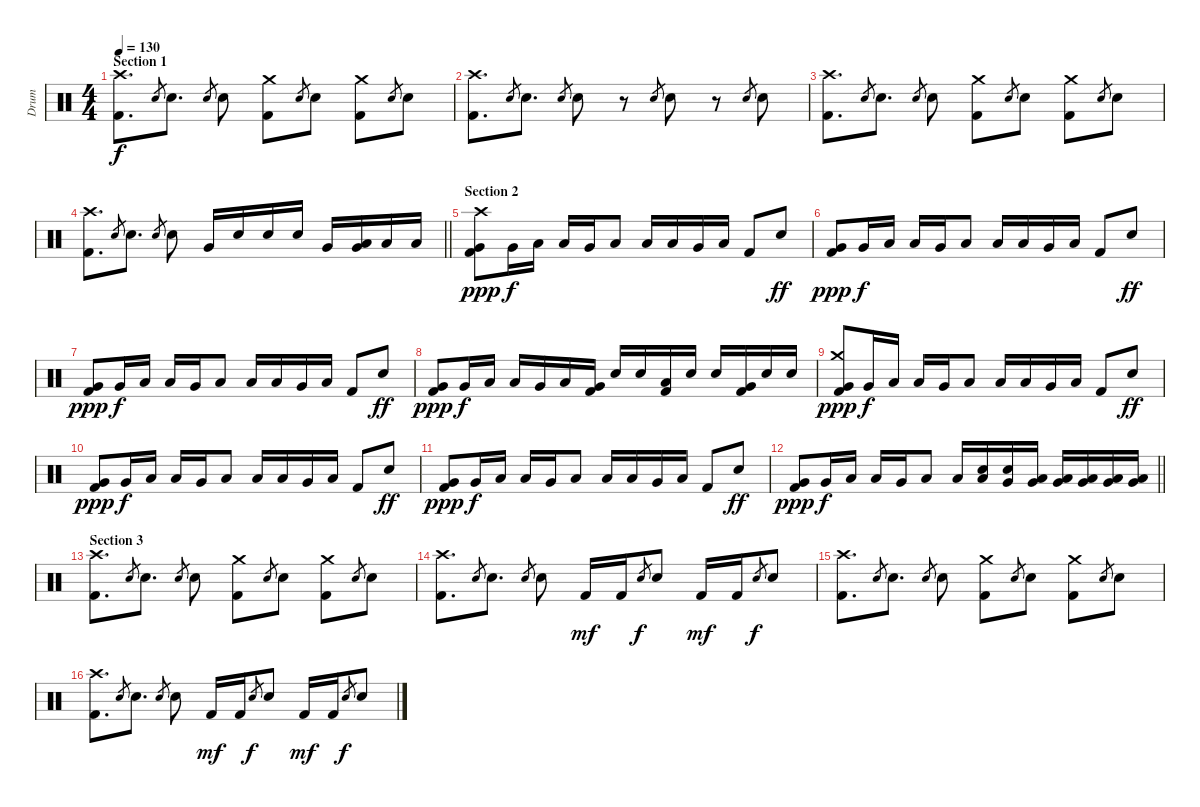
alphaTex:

\track ("Drum" "Drum") {instrument percussion}
\staff {score}
\articulation defaults
\ts (4 4)
\section ("" "Section 1")
\tempo 130
\clef neutral
\ks c
("Crash high (hit)" "Kick (hit) 2").8{d dy f} "Electric Snare (hit)".8{gr} "Electric Snare (hit)".8{d} "Electric Snare (hit)".8{gr} "Electric Snare (hit)".8 ("Kick (hit) 2" "Crash medium (hit)").8 "Electric Snare (hit)".8{gr} "Electric Snare (hit)".8 ("Kick (hit) 2" "Crash medium (hit)").8 "Electric Snare (hit)".8{gr} "Electric Snare (hit)".8 |
("Crash high (hit)" "Kick (hit) 2").8{d} "Electric Snare (hit)".8{gr} "Electric Snare (hit)".8{d} "Electric Snare (hit)".8{gr} "Electric Snare (hit)".8 r.8 "Electric Snare (hit)".8{gr} "Electric Snare (hit)".8 r.8 "Electric Snare (hit)".8{gr} "Electric Snare (hit)".8 |
("Crash high (hit)" "Kick (hit) 2").8{d} "Electric Snare (hit)".8{gr} "Electric Snare (hit)".8{d} "Electric Snare (hit)".8{gr} "Electric Snare (hit)".8 ("Kick (hit) 2" "Crash medium (hit)").8 "Electric Snare (hit)".8{gr} "Electric Snare (hit)".8 ("Kick (hit) 2" "Crash medium (hit)").8 "Electric Snare (hit)".8{gr} "Electric Snare (hit)".8 |
\barLineRight lightlight
("Crash high (hit)" "Kick (hit) 2").8{d} "Electric Snare (hit)".8{gr} "Electric Snare (hit)".8{d} "Electric Snare (hit)".8{gr} "Electric Snare (hit)".8 "Very Low Tom (hit)".16 "Electric Snare (hit)".16 "Electric Snare (hit)".16 "Electric Snare (hit)".16 "Very Low Tom (hit)".16 ("Low Floor Tom (hit)" "Very Low Tom (hit)").16 "Low Floor Tom (hit)".16 "Low Floor Tom (hit)".16 |
\section ("" "Section 2")
("Crash high (hit)" "Very Low Tom (hit)" "Kick (hit) 2").8{dy ppp} "Very Low Tom (hit)".16{dy f} "Low Tom (hit)".16 "Low Tom (hit)".16 "Very Low Tom (hit)".16 "Low Tom (hit)".8 "Low Floor Tom (hit)".16 "Low Tom (hit)".16 "Very Low Tom (hit)".16 "Low Floor Tom (hit)".16 "Kick (hit) 2".8 "Electric Snare (hit)".8{dy ff} |
("Very Low Tom (hit)" "Kick (hit) 2").8{dy ppp} "Very Low Tom (hit)".16{dy f} "Low Tom (hit)".16 "Low Tom (hit)".16 "Very Low Tom (hit)".16 "Low Tom (hit)".8 "Low Floor Tom (hit)".16 "Low Tom (hit)".16 "Very Low Tom (hit)".16 "Low Floor Tom (hit)".16 "Kick (hit) 2".8 "Electric Snare (hit)".8{dy ff} |
("Very Low Tom (hit)" "Kick (hit) 2").8{dy ppp} "Very Low Tom (hit)".16{dy f} "Low Tom (hit)".16 "Low Tom (hit)".16 "Very Low Tom (hit)".16 "Low Tom (hit)".8 "Low Floor Tom (hit)".16 "Low Tom (hit)".16 "Very Low Tom (hit)".16 "Low Floor Tom (hit)".16 "Kick (hit) 2".8 "Electric Snare (hit)".8{dy ff} |
("Very Low Tom (hit)" "Kick (hit) 2").8{dy ppp} "Very Low Tom (hit)".16{dy f} "Low Tom (hit)".16 "Low Tom (hit)".16 "Very Low Tom (hit)".16 "Low Tom (hit)".16 ("Kick (hit) 2" "Very Low Tom (hit)").16 "Electric Snare (hit)".16 "Electric Snare (hit)".16 ("Kick (hit) 2" "Low Floor Tom (hit)").16 "Electric Snare (hit)".16 "Electric Snare (hit)".16 ("Kick (hit) 2" "Very Low Tom (hit)").16 "Electric Snare (hit)".16 "Electric Snare (hit)".16 |
("Crash medium (hit)" "Very Low Tom (hit)" "Kick (hit) 2").8{dy ppp} "Very Low Tom (hit)".16{dy f} "Low Tom (hit)".16 "Low Tom (hit)".16 "Very Low Tom (hit)".16 "Low Tom (hit)".8 "Low Floor Tom (hit)".16 "Low Tom (hit)".16 "Very Low Tom (hit)".16 "Low Floor Tom (hit)".16 "Kick (hit) 2".8 "Electric Snare (hit)".8{dy ff} |
("Very Low Tom (hit)" "Kick (hit) 2").8{dy ppp} "Very Low Tom (hit)".16{dy f} "Low Tom (hit)".16 "Low Tom (hit)".16 "Very Low Tom (hit)".16 "Low Tom (hit)".8 "Low Floor Tom (hit)".16 "Low Tom (hit)".16 "Very Low Tom (hit)".16 "Low Floor Tom (hit)".16 "Kick (hit) 2".8 "Electric Snare (hit)".8{dy ff} |
("Very Low Tom (hit)" "Kick (hit) 2").8{dy ppp} "Very Low Tom (hit)".16{dy f} "Low Tom (hit)".16 "Low Tom (hit)".16 "Very Low Tom (hit)".16 "Low Tom (hit)".8 "Low Floor Tom (hit)".16 "Low Tom (hit)".16 "Very Low Tom (hit)".16 "Low Floor Tom (hit)".16 "Kick (hit) 2".8 "Electric Snare (hit)".8{dy ff} |
\barLineRight lightlight
("Very Low Tom (hit)" "Kick (hit) 2").8{dy ppp} "Very Low Tom (hit)".16{dy f} "Low Tom (hit)".16 "Low Tom (hit)".16 "Very Low Tom (hit)".16 "Low Tom (hit)".8 "Low Floor Tom (hit)".16 ("Low Tom (hit)" "Electric Snare (hit)").16 ("Very Low Tom (hit)" "Electric Snare (hit)").16 ("Low Floor Tom (hit)" "Very Low Tom (hit)").16 ("Low Floor Tom (hit)" "Very Low Tom (hit)").16 ("Low Floor Tom (hit)" "Very Low Tom (hit)").16 ("Low Floor Tom (hit)" "Very Low Tom (hit)").16 ("Low Floor Tom (hit)" "Very Low Tom (hit)").16 |
\section ("" "Section 3")
("Crash high (hit)" "Kick (hit) 2").8{d} "Electric Snare (hit)".8{gr} "Electric Snare (hit)".8{d} "Electric Snare (hit)".8{gr} "Electric Snare (hit)".8 ("Kick (hit) 2" "Crash medium (hit)").8 "Electric Snare (hit)".8{gr} "Electric Snare (hit)".8 ("Kick (hit) 2" "Crash medium (hit)").8 "Electric Snare (hit)".8{gr} "Electric Snare (hit)".8 |
("Crash high (hit)" "Kick (hit) 2").8{d} "Electric Snare (hit)".8{gr} "Electric Snare (hit)".8{d} "Electric Snare (hit)".8{gr} "Electric Snare (hit)".8 "Kick (hit) 2".16{dy mf} "Kick (hit) 2".16 "Electric Snare (hit)".8{gr dy f} "Electric Snare (hit)".8 "Kick (hit) 2".16{dy mf} "Kick (hit) 2".16 "Electric Snare (hit)".8{gr dy f} "Electric Snare (hit)".8 |
("Crash high (hit)" "Kick (hit) 2").8{d} "Electric Snare (hit)".8{gr} "Electric Snare (hit)".8{d} "Electric Snare (hit)".8{gr} "Electric Snare (hit)".8 ("Kick (hit) 2" "Crash medium (hit)").8 "Electric Snare (hit)".8{gr} "Electric Snare (hit)".8 ("Kick (hit) 2" "Crash medium (hit)").8 "Electric Snare (hit)".8{gr} "Electric Snare (hit)".8 |
("Crash high (hit)" "Kick (hit) 2").8{d} "Electric Snare (hit)".8{gr} "Electric Snare (hit)".8{d} "Electric Snare (hit)".8{gr} "Electric Snare (hit)".8 "Kick (hit) 2".16{dy mf} "Kick (hit) 2".16 "Electric Snare (hit)".8{gr dy f} "Electric Snare (hit)".8 "Kick (hit) 2".16{dy mf} "Kick (hit) 2".16 "Electric Snare (hit)".8{gr dy f} "Electric Snare (hit)".8
